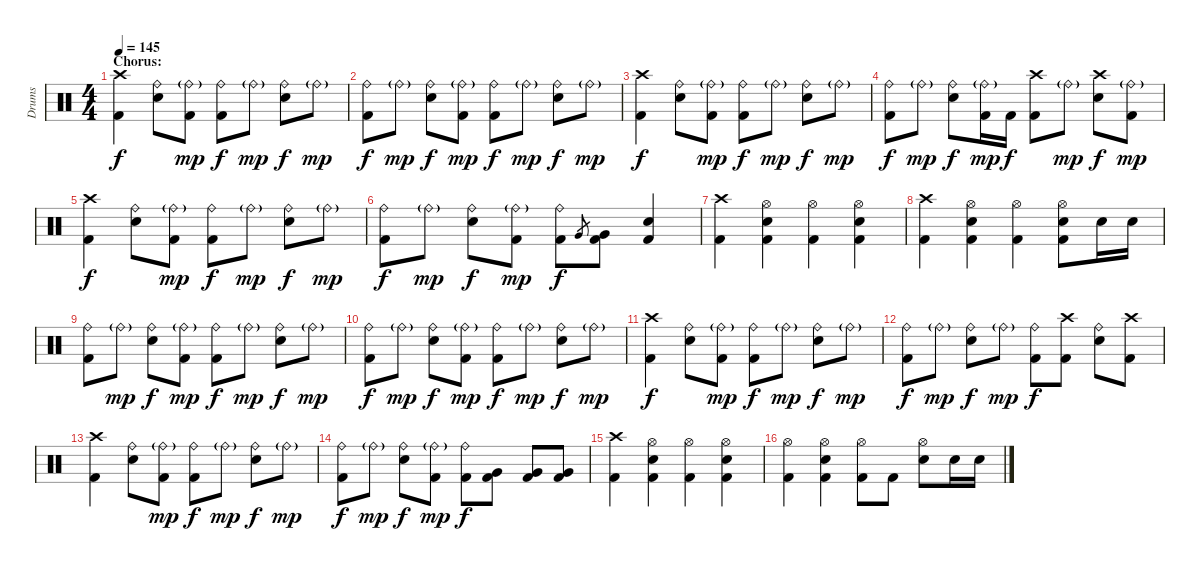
\track ("Drums" "Drums") {instrument percussion}
\staff {score}
\articulation defaults
\ts (4 4)
\section ("" "Chorus:")
\tempo 145
\clef neutral
\ks c
("Crash high (hit)" "Kick (hit) 2").4{dy f} ("Ride (bell)" "Electric Snare (hit)").8 ("Ride (bell)"{g} "Kick (hit) 2").8{dy mp} ("Ride (bell)" "Kick (hit) 2").8{dy f} "Ride (bell)"{g}.8{dy mp} ("Ride (bell)" "Electric Snare (hit)").8{dy f} "Ride (bell)"{g}.8{dy mp} |
("Ride (bell)" "Kick (hit) 2").8{dy f} "Ride (bell)"{g}.8{dy mp} ("Ride (bell)" "Electric Snare (hit)").8{dy f} ("Ride (bell)"{g} "Kick (hit) 2").8{dy mp} ("Ride (bell)" "Kick (hit) 2").8{dy f} "Ride (bell)"{g}.8{dy mp} ("Ride (bell)" "Electric Snare (hit)").8{dy f} "Ride (bell)"{g}.8{dy mp} |
("Crash high (hit)" "Kick (hit) 2").4{dy f} ("Ride (bell)" "Electric Snare (hit)").8 ("Ride (bell)"{g} "Kick (hit) 2").8{dy mp} ("Ride (bell)" "Kick (hit) 2").8{dy f} "Ride (bell)"{g}.8{dy mp} ("Ride (bell)" "Electric Snare (hit)").8{dy f} "Ride (bell)"{g}.8{dy mp} |
("Ride (bell)" "Kick (hit) 2").8{dy f} "Ride (bell)"{g}.8{dy mp} ("Ride (bell)" "Electric Snare (hit)").8{dy f} ("Ride (bell)"{g} "Kick (hit) 2").16{dy mp} "Kick (hit) 2".16{dy f} ("Crash high (hit)" "Kick (hit) 2").8 "Ride (bell)"{g}.8{dy mp} ("Crash high (hit)" "Electric Snare (hit)").8{dy f} ("Ride (bell)"{g} "Kick (hit) 2").8{dy mp} |
("Crash high (hit)" "Kick (hit) 2").4{dy f} ("Ride (bell)" "Electric Snare (hit)").8 ("Ride (bell)"{g} "Kick (hit) 2").8{dy mp} ("Ride (bell)" "Kick (hit) 2").8{dy f} "Ride (bell)"{g}.8{dy mp} ("Ride (bell)" "Electric Snare (hit)").8{dy f} "Ride (bell)"{g}.8{dy mp} |
("Ride (bell)" "Kick (hit) 2").8{dy f} "Ride (bell)"{g}.8{dy mp} ("Ride (bell)" "Electric Snare (hit)").8{dy f} ("Ride (bell)"{g} "Kick (hit) 2").8{dy mp} ("Ride (bell)" "Kick (hit) 2").8{dy f} "Very Low Tom (hit)".8{gr} ("Very Low Tom (hit)" "Kick (hit) 2").8 ("Electric Snare (hit)" "Kick (hit) 2").4 |
("Crash high (hit)" "Kick (hit) 2").4 ("Hi-Hat (open)" "Electric Snare (hit)" "Kick (hit) 2").4 ("Hi-Hat (open)" "Kick (hit) 2").4 ("Hi-Hat (open)" "Electric Snare (hit)" "Kick (hit) 2").4 |
("Crash high (hit)" "Kick (hit) 2").4 ("Hi-Hat (open)" "Electric Snare (hit)" "Kick (hit) 2").4 ("Hi-Hat (open)" "Kick (hit) 2").4 ("Hi-Hat (open)" "Electric Snare (hit)" "Kick (hit) 2").8 "Electric Snare (hit)".16 "Electric Snare (hit)".16 |
("Ride (bell)" "Kick (hit) 2").8 "Ride (bell)"{g}.8{dy mp} ("Ride (bell)" "Electric Snare (hit)").8{dy f} ("Ride (bell)"{g} "Kick (hit) 2").8{dy mp} ("Ride (bell)" "Kick (hit) 2").8{dy f} "Ride (bell)"{g}.8{dy mp} ("Ride (bell)" "Electric Snare (hit)").8{dy f} "Ride (bell)"{g}.8{dy mp} |
("Ride (bell)" "Kick (hit) 2").8{dy f} "Ride (bell)"{g}.8{dy mp} ("Ride (bell)" "Electric Snare (hit)").8{dy f} ("Ride (bell)"{g} "Kick (hit) 2").8{dy mp} ("Ride (bell)" "Kick (hit) 2").8{dy f} "Ride (bell)"{g}.8{dy mp} ("Ride (bell)" "Electric Snare (hit)").8{dy f} "Ride (bell)"{g}.8{dy mp} |
("Crash high (hit)" "Kick (hit) 2").4{dy f} ("Ride (bell)" "Electric Snare (hit)").8 ("Ride (bell)"{g} "Kick (hit) 2").8{dy mp} ("Ride (bell)" "Kick (hit) 2").8{dy f} "Ride (bell)"{g}.8{dy mp} ("Ride (bell)" "Electric Snare (hit)").8{dy f} "Ride (bell)"{g}.8{dy mp} |
("Ride (bell)" "Kick (hit) 2").8{dy f} "Ride (bell)"{g}.8{dy mp} ("Ride (bell)" "Electric Snare (hit)").8{dy f} "Ride (bell)"{g}.8{dy mp} ("Ride (bell)" "Kick (hit) 2").8{dy f} ("Crash high (hit)" "Kick (hit) 2").8 ("Ride (bell)" "Electric Snare (hit)").8 ("Crash high (hit)" "Kick (hit) 2").8 |
("Crash high (hit)" "Kick (hit) 2").4 ("Ride (bell)" "Electric Snare (hit)").8 ("Ride (bell)"{g} "Kick (hit) 2").8{dy mp} ("Ride (bell)" "Kick (hit) 2").8{dy f} "Ride (bell)"{g}.8{dy mp} ("Ride (bell)" "Electric Snare (hit)").8{dy f} "Ride (bell)"{g}.8{dy mp} |
("Ride (bell)" "Kick (hit) 2").8{dy f} "Ride (bell)"{g}.8{dy mp} ("Ride (bell)" "Electric Snare (hit)").8{dy f} ("Ride (bell)"{g} "Kick (hit) 2").8{dy mp} ("Ride (bell)" "Kick (hit) 2").8{dy f} ("Very Low Tom (hit)" "Kick (hit) 2").8 ("Very Low Tom (hit)" "Kick (hit) 2").8 ("Very Low Tom (hit)" "Kick (hit) 2").8 |
("Crash high (hit)" "Kick (hit) 2").4 ("Hi-Hat (open)" "Electric Snare (hit)" "Kick (hit) 2").4 ("Hi-Hat (open)" "Kick (hit) 2").4 ("Hi-Hat (open)" "Electric Snare (hit)" "Kick (hit) 2").4 |
("Hi-Hat (open)" "Kick (hit) 2").4 ("Hi-Hat (open)" "Electric Snare (hit)" "Kick (hit) 2").4 ("Hi-Hat (open)" "Kick (hit) 2").8 "Kick (hit) 2".8 ("Hi-Hat (open)" "Electric Snare (hit)").8 "Electric Snare (hit)".16 "Electric Snare (hit)".16
